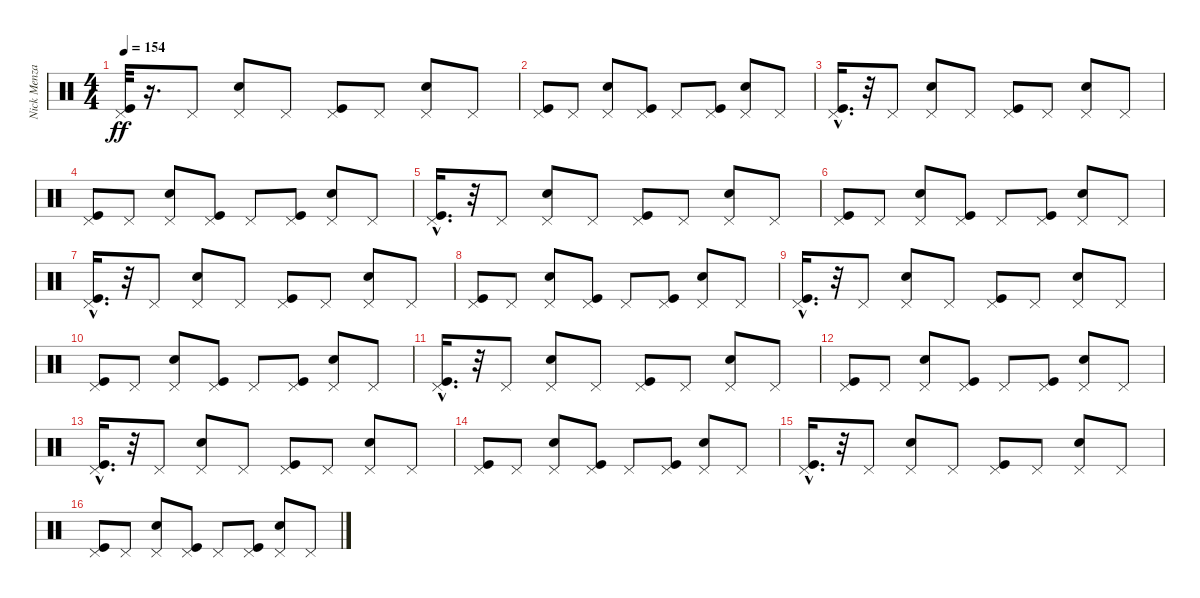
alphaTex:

\track ("Nick Menza" "Nick Menza") {instrument percussion}
\staff {score}
\articulation defaults
\ts (4 4)
\tempo 154
\clef neutral
\ks c
("Pedal Hi-Hat (hit)" "Kick (hit)").32{dy ff} r.16{d} "Pedal Hi-Hat (hit)".8 ("Pedal Hi-Hat (hit)" "Electric Snare (hit)").8 "Pedal Hi-Hat (hit)".8 ("Kick (hit)" "Pedal Hi-Hat (hit)").8 "Pedal Hi-Hat (hit)".8 ("Electric Snare (hit)" "Pedal Hi-Hat (hit)").8 "Pedal Hi-Hat (hit)".8 |
("Kick (hit)" "Pedal Hi-Hat (hit)").8 "Pedal Hi-Hat (hit)".8 ("Pedal Hi-Hat (hit)" "Electric Snare (hit)").8 ("Pedal Hi-Hat (hit)" "Kick (hit)").8 "Pedal Hi-Hat (hit)".8 ("Kick (hit)" "Pedal Hi-Hat (hit)").8 ("Electric Snare (hit)" "Pedal Hi-Hat (hit)").8 "Pedal Hi-Hat (hit)".8 |
("Pedal Hi-Hat (hit)" "Kick (hit)"{hac}).16{d} r.32 "Pedal Hi-Hat (hit)".8 ("Electric Snare (hit)" "Pedal Hi-Hat (hit)").8 "Pedal Hi-Hat (hit)".8 ("Kick (hit)" "Pedal Hi-Hat (hit)").8 "Pedal Hi-Hat (hit)".8 ("Electric Snare (hit)" "Pedal Hi-Hat (hit)").8 "Pedal Hi-Hat (hit)".8 |
("Kick (hit)" "Pedal Hi-Hat (hit)").8 "Pedal Hi-Hat (hit)".8 ("Electric Snare (hit)" "Pedal Hi-Hat (hit)").8 ("Pedal Hi-Hat (hit)" "Kick (hit)").8 "Pedal Hi-Hat (hit)".8 ("Kick (hit)" "Pedal Hi-Hat (hit)").8 ("Electric Snare (hit)" "Pedal Hi-Hat (hit)").8 "Pedal Hi-Hat (hit)".8 |
("Pedal Hi-Hat (hit)" "Kick (hit)"{hac}).16{d} r.32 "Pedal Hi-Hat (hit)".8 ("Pedal Hi-Hat (hit)" "Electric Snare (hit)").8 "Pedal Hi-Hat (hit)".8 ("Kick (hit)" "Pedal Hi-Hat (hit)").8 "Pedal Hi-Hat (hit)".8 ("Electric Snare (hit)" "Pedal Hi-Hat (hit)").8 "Pedal Hi-Hat (hit)".8 |
("Kick (hit)" "Pedal Hi-Hat (hit)").8 "Pedal Hi-Hat (hit)".8 ("Pedal Hi-Hat (hit)" "Electric Snare (hit)").8 ("Pedal Hi-Hat (hit)" "Kick (hit)").8 "Pedal Hi-Hat (hit)".8 ("Kick (hit)" "Pedal Hi-Hat (hit)").8 ("Electric Snare (hit)" "Pedal Hi-Hat (hit)").8 "Pedal Hi-Hat (hit)".8 |
("Pedal Hi-Hat (hit)" "Kick (hit)"{hac}).16{d} r.32 "Pedal Hi-Hat (hit)".8 ("Electric Snare (hit)" "Pedal Hi-Hat (hit)").8 "Pedal Hi-Hat (hit)".8 ("Kick (hit)" "Pedal Hi-Hat (hit)").8 "Pedal Hi-Hat (hit)".8 ("Electric Snare (hit)" "Pedal Hi-Hat (hit)").8 "Pedal Hi-Hat (hit)".8 |
("Kick (hit)" "Pedal Hi-Hat (hit)").8 "Pedal Hi-Hat (hit)".8 ("Electric Snare (hit)" "Pedal Hi-Hat (hit)").8 ("Pedal Hi-Hat (hit)" "Kick (hit)").8 "Pedal Hi-Hat (hit)".8 ("Kick (hit)" "Pedal Hi-Hat (hit)").8 ("Electric Snare (hit)" "Pedal Hi-Hat (hit)").8 "Pedal Hi-Hat (hit)".8 |
("Pedal Hi-Hat (hit)" "Kick (hit)"{hac}).16{d} r.32 "Pedal Hi-Hat (hit)".8 ("Pedal Hi-Hat (hit)" "Electric Snare (hit)").8 "Pedal Hi-Hat (hit)".8 ("Kick (hit)" "Pedal Hi-Hat (hit)").8 "Pedal Hi-Hat (hit)".8 ("Electric Snare (hit)" "Pedal Hi-Hat (hit)").8 "Pedal Hi-Hat (hit)".8 |
("Kick (hit)" "Pedal Hi-Hat (hit)").8 "Pedal Hi-Hat (hit)".8 ("Pedal Hi-Hat (hit)" "Electric Snare (hit)").8 ("Pedal Hi-Hat (hit)" "Kick (hit)").8 "Pedal Hi-Hat (hit)".8 ("Kick (hit)" "Pedal Hi-Hat (hit)").8 ("Electric Snare (hit)" "Pedal Hi-Hat (hit)").8 "Pedal Hi-Hat (hit)".8 |
("Pedal Hi-Hat (hit)" "Kick (hit)"{hac}).16{d} r.32 "Pedal Hi-Hat (hit)".8 ("Electric Snare (hit)" "Pedal Hi-Hat (hit)").8 "Pedal Hi-Hat (hit)".8 ("Kick (hit)" "Pedal Hi-Hat (hit)").8 "Pedal Hi-Hat (hit)".8 ("Electric Snare (hit)" "Pedal Hi-Hat (hit)").8 "Pedal Hi-Hat (hit)".8 |
("Kick (hit)" "Pedal Hi-Hat (hit)").8 "Pedal Hi-Hat (hit)".8 ("Pedal Hi-Hat (hit)" "Electric Snare (hit)").8 ("Pedal Hi-Hat (hit)" "Kick (hit)").8 "Pedal Hi-Hat (hit)".8 ("Kick (hit)" "Pedal Hi-Hat (hit)").8 ("Electric Snare (hit)" "Pedal Hi-Hat (hit)").8 "Pedal Hi-Hat (hit)".8 |
("Pedal Hi-Hat (hit)" "Kick (hit)"{hac}).16{d} r.32 "Pedal Hi-Hat (hit)".8 ("Electric Snare (hit)" "Pedal Hi-Hat (hit)").8 "Pedal Hi-Hat (hit)".8 ("Kick (hit)" "Pedal Hi-Hat (hit)").8 "Pedal Hi-Hat (hit)".8 ("Electric Snare (hit)" "Pedal Hi-Hat (hit)").8 "Pedal Hi-Hat (hit)".8 |
("Pedal Hi-Hat (hit)" "Kick (hit)").8 "Pedal Hi-Hat (hit)".8 ("Pedal Hi-Hat (hit)" "Electric Snare (hit)").8 ("Pedal Hi-Hat (hit)" "Kick (hit)").8 "Pedal Hi-Hat (hit)".8 ("Kick (hit)" "Pedal Hi-Hat (hit)").8 ("Electric Snare (hit)" "Pedal Hi-Hat (hit)").8 "Pedal Hi-Hat (hit)".8 |
("Pedal Hi-Hat (hit)" "Kick (hit)"{hac}).16{d} r.32 "Pedal Hi-Hat (hit)".8 ("Pedal Hi-Hat (hit)" "Electric Snare (hit)").8 "Pedal Hi-Hat (hit)".8 ("Kick (hit)" "Pedal Hi-Hat (hit)").8 "Pedal Hi-Hat (hit)".8 ("Electric Snare (hit)" "Pedal Hi-Hat (hit)").8 "Pedal Hi-Hat (hit)".8 |
("Pedal Hi-Hat (hit)" "Kick (hit)").8 "Pedal Hi-Hat (hit)".8 ("Pedal Hi-Hat (hit)" "Electric Snare (hit)").8 ("Pedal Hi-Hat (hit)" "Kick (hit)").8 "Pedal Hi-Hat (hit)".8 ("Kick (hit)" "Pedal Hi-Hat (hit)").8 ("Electric Snare (hit)" "Pedal Hi-Hat (hit)").8 "Pedal Hi-Hat (hit)".8
